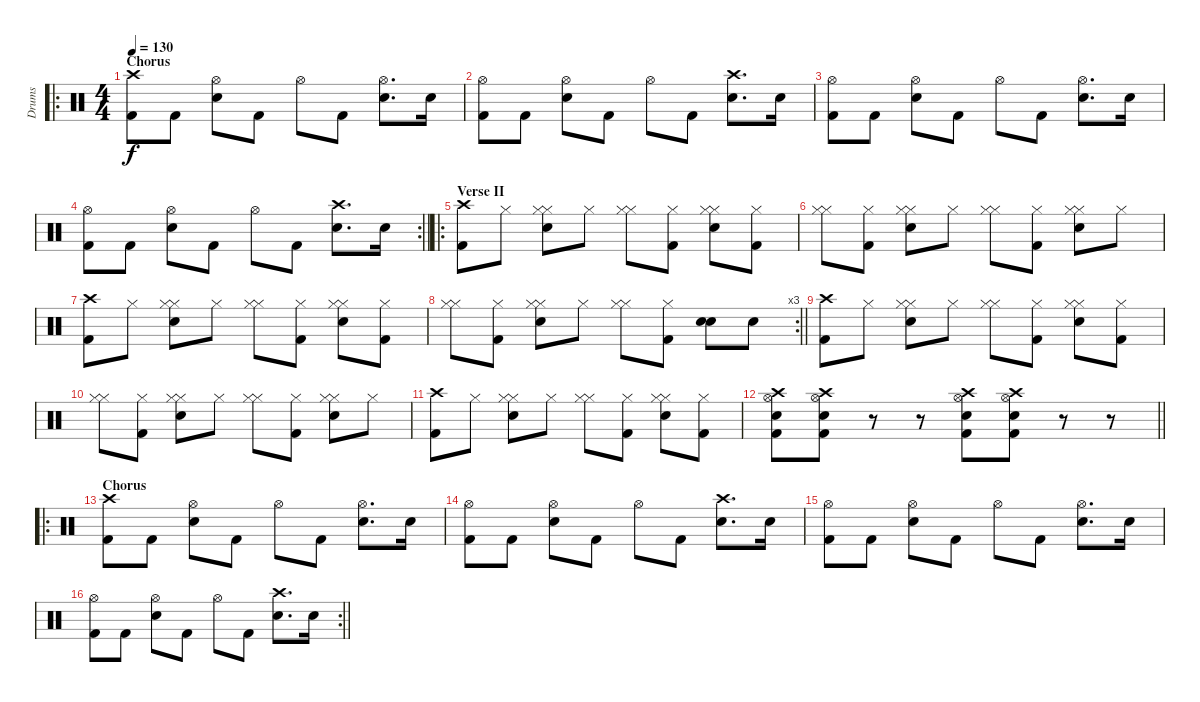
\track ("Drums" "Drums") {instrument percussion}
\staff {score}
\articulation defaults
\ro
\ts (4 4)
\section ("" "Chorus")
\tempo 130
\clef neutral
\ks c
("Crash high (hit)" "Kick (hit) 2").8{dy f} "Kick (hit) 2".8 ("Hi-Hat (open)" "Electric Snare (hit)").8 "Kick (hit) 2".8 "Hi-Hat (open)".8 "Kick (hit) 2".8 ("Hi-Hat (open)" "Electric Snare (hit)").8{d} "Electric Snare (hit)".16 |
("Hi-Hat (open)" "Kick (hit) 2").8 "Kick (hit) 2".8 ("Hi-Hat (open)" "Electric Snare (hit)").8 "Kick (hit) 2".8 "Hi-Hat (open)".8 "Kick (hit) 2".8 ("Crash high (hit)" "Electric Snare (hit)").8{d} "Electric Snare (hit)".16 |
("Hi-Hat (open)" "Kick (hit) 2").8 "Kick (hit) 2".8 ("Hi-Hat (open)" "Electric Snare (hit)").8 "Kick (hit) 2".8 "Hi-Hat (open)".8 "Kick (hit) 2".8 ("Hi-Hat (open)" "Electric Snare (hit)").8{d} "Electric Snare (hit)".16 |
\rc 2
\barLineRight lightlight
("Hi-Hat (open)" "Kick (hit) 2").8 "Kick (hit) 2".8 ("Hi-Hat (open)" "Electric Snare (hit)").8 "Kick (hit) 2".8 "Hi-Hat (open)".8 "Kick (hit) 2".8 ("Crash high (hit)" "Electric Snare (hit)").8{d} "Electric Snare (hit)".16 |
\ro
\section ("" "Verse II")
("Crash high (hit)" "Kick (hit) 2").8 "Hi-Hat (closed)".8 ("Hi-Hat (closed)" "Snare (hit) 2" "Hi-Hat (closed)").8 "Hi-Hat (closed)".8 ("Hi-Hat (closed)" "Hi-Hat (closed)").8 ("Kick (hit) 2" "Hi-Hat (closed)").8 ("Hi-Hat (closed)" "Snare (hit) 2" "Hi-Hat (closed)").8 ("Kick (hit) 2" "Hi-Hat (closed)").8 |
("Hi-Hat (closed)" "Hi-Hat (closed)").8 ("Kick (hit) 2" "Hi-Hat (closed)").8 ("Hi-Hat (closed)" "Snare (hit) 2" "Hi-Hat (closed)").8 "Hi-Hat (closed)".8 ("Hi-Hat (closed)" "Hi-Hat (closed)").8 ("Kick (hit) 2" "Hi-Hat (closed)").8 ("Hi-Hat (closed)" "Snare (hit) 2" "Hi-Hat (closed)").8 "Hi-Hat (closed)".8 |
("Crash high (hit)" "Kick (hit) 2").8 "Hi-Hat (closed)".8 ("Hi-Hat (closed)" "Snare (hit) 2" "Hi-Hat (closed)").8 "Hi-Hat (closed)".8 ("Hi-Hat (closed)" "Hi-Hat (closed)").8 ("Kick (hit) 2" "Hi-Hat (closed)").8 ("Hi-Hat (closed)" "Snare (hit) 2" "Hi-Hat (closed)").8 ("Kick (hit) 2" "Hi-Hat (closed)").8 |
\rc 3
\barLineRight lightlight
("Hi-Hat (closed)" "Hi-Hat (closed)").8 ("Kick (hit) 2" "Hi-Hat (closed)").8 ("Hi-Hat (closed)" "Snare (hit) 2" "Hi-Hat (closed)").8 "Hi-Hat (closed)".8 ("Hi-Hat (closed)" "Hi-Hat (closed)").8 ("Kick (hit) 2" "Hi-Hat (closed)").8 ("Snare (hit) 2" "Electric Snare (hit)").8 "Electric Snare (hit)".8 |
("Crash high (hit)" "Kick (hit) 2").8 "Hi-Hat (closed)".8 ("Hi-Hat (closed)" "Snare (hit) 2" "Hi-Hat (closed)").8 "Hi-Hat (closed)".8 ("Hi-Hat (closed)" "Hi-Hat (closed)").8 ("Kick (hit) 2" "Hi-Hat (closed)").8 ("Hi-Hat (closed)" "Snare (hit) 2" "Hi-Hat (closed)").8 ("Kick (hit) 2" "Hi-Hat (closed)").8 |
("Hi-Hat (closed)" "Hi-Hat (closed)").8 ("Kick (hit) 2" "Hi-Hat (closed)").8 ("Hi-Hat (closed)" "Snare (hit) 2" "Hi-Hat (closed)").8 "Hi-Hat (closed)".8 ("Hi-Hat (closed)" "Hi-Hat (closed)").8 ("Kick (hit) 2" "Hi-Hat (closed)").8 ("Hi-Hat (closed)" "Snare (hit) 2" "Hi-Hat (closed)").8 "Hi-Hat (closed)".8 |
("Crash high (hit)" "Kick (hit) 2").8 "Hi-Hat (closed)".8 ("Hi-Hat (closed)" "Snare (hit) 2" "Hi-Hat (closed)").8 "Hi-Hat (closed)".8 ("Hi-Hat (closed)" "Hi-Hat (closed)").8 ("Kick (hit) 2" "Hi-Hat (closed)").8 ("Hi-Hat (closed)" "Snare (hit) 2" "Hi-Hat (closed)").8 ("Kick (hit) 2" "Hi-Hat (closed)").8 |
\barLineRight lightlight
("Crash high (hit)" "Electric Snare (hit)" "Kick (hit) 2" "Hi-Hat (open)").8 ("Crash high (hit)" "Electric Snare (hit)" "Kick (hit) 2" "Hi-Hat (open)").8 r.8 r.8 ("Crash high (hit)" "Electric Snare (hit)" "Kick (hit) 2" "Hi-Hat (open)").8 ("Crash high (hit)" "Electric Snare (hit)" "Kick (hit) 2" "Hi-Hat (open)").8 r.8 r.8 |
\ro
\section ("" "Chorus")
("Crash high (hit)" "Kick (hit) 2").8 "Kick (hit) 2".8 ("Hi-Hat (open)" "Electric Snare (hit)").8 "Kick (hit) 2".8 "Hi-Hat (open)".8 "Kick (hit) 2".8 ("Hi-Hat (open)" "Electric Snare (hit)").8{d} "Electric Snare (hit)".16 |
("Hi-Hat (open)" "Kick (hit) 2").8 "Kick (hit) 2".8 ("Hi-Hat (open)" "Electric Snare (hit)").8 "Kick (hit) 2".8 "Hi-Hat (open)".8 "Kick (hit) 2".8 ("Crash high (hit)" "Electric Snare (hit)").8{d} "Electric Snare (hit)".16 |
("Hi-Hat (open)" "Kick (hit) 2").8 "Kick (hit) 2".8 ("Hi-Hat (open)" "Electric Snare (hit)").8 "Kick (hit) 2".8 "Hi-Hat (open)".8 "Kick (hit) 2".8 ("Hi-Hat (open)" "Electric Snare (hit)").8{d} "Electric Snare (hit)".16 |
\rc 2
\barLineRight lightlight
("Hi-Hat (open)" "Kick (hit) 2").8 "Kick (hit) 2".8 ("Hi-Hat (open)" "Electric Snare (hit)").8 "Kick (hit) 2".8 "Hi-Hat (open)".8 "Kick (hit) 2".8 ("Crash high (hit)" "Electric Snare (hit)").8{d} "Electric Snare (hit)".16
